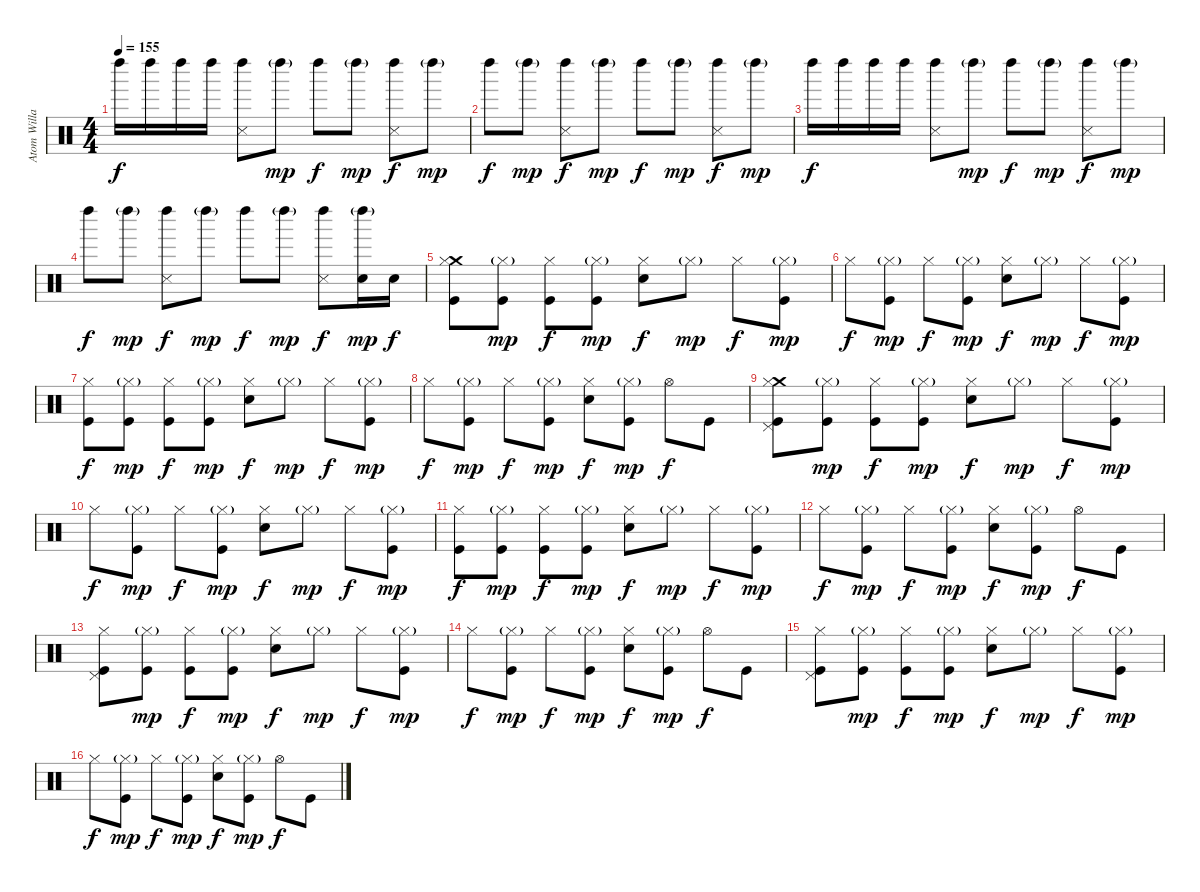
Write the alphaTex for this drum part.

\track ("Atom Willard Drums" "Atom Willa") {instrument percussion}
\staff {score}
\articulation defaults
\ts (4 4)
\tempo 155
\clef neutral
\ks c "Left Maraca (hit)".16{dy f} "Left Maraca (hit)".16 "Left Maraca (hit)".16 "Left Maraca (hit)".16
("Snare (side stick) 3" "Left Maraca (hit)").8 "Left Maraca (hit)"{g}.8{dy mp} "Left Maraca (hit)".8{dy f} "Left Maraca (hit)"{g}.8{dy mp} ("Left Maraca (hit)" "Snare (side stick) 3").8{dy f} "Left Maraca (hit)"{g}.8{dy mp} |
"Left Maraca (hit)".8{dy f} "Left Maraca (hit)"{g}.8{dy mp} ("Left Maraca (hit)" "Snare (side stick) 3").8{dy f} "Left Maraca (hit)"{g}.8{dy mp} "Left Maraca (hit)".8{dy f} "Left Maraca (hit)"{g}.8{dy mp} ("Left Maraca (hit)" "Snare (side stick) 3").8{dy f} "Left Maraca (hit)"{g}.8{dy mp} |
"Left Maraca (hit)".16{dy f} "Left Maraca (hit)".16 "Left Maraca (hit)".16 "Left Maraca (hit)".16 ("Snare (side stick) 3" "Left Maraca (hit)").8 "Left Maraca (hit)"{g}.8{dy mp} "Left Maraca (hit)".8{dy f} "Left Maraca (hit)"{g}.8{dy mp} ("Left Maraca (hit)" "Snare (side stick) 3").8{dy f} "Left Maraca (hit)"{g}.8{dy mp} |
"Left Maraca (hit)".8{dy f} "Left Maraca (hit)"{g}.8{dy mp} ("Left Maraca (hit)" "Snare (side stick) 3").8{dy f} "Left Maraca (hit)"{g}.8{dy mp} "Left Maraca (hit)".8{dy f} "Left Maraca (hit)"{g}.8{dy mp} ("Left Maraca (hit)" "Snare (side stick) 3").8{dy f} ("Left Maraca (hit)"{g} "Electric Snare (hit)").16{dy mp} "Electric Snare (hit)".16{dy f} |
("Kick (hit)" "Crash medium (hit)" "Hi-Hat (closed)").8 ("Hi-Hat (closed)"{g} "Kick (hit)").8{dy mp} ("Kick (hit)" "Hi-Hat (closed)").8{dy f} ("Kick (hit)" "Hi-Hat (closed)"{g}).8{dy mp} ("Electric Snare (hit)" "Hi-Hat (closed)").8{dy f} "Hi-Hat (closed)"{g}.8{dy mp} "Hi-Hat (closed)".8{dy f} ("Hi-Hat (closed)"{g} "Kick (hit)").8{dy mp} |
"Hi-Hat (closed)".8{dy f} ("Hi-Hat (closed)"{g} "Kick (hit)").8{dy mp} "Hi-Hat (closed)".8{dy f} ("Hi-Hat (closed)"{g} "Kick (hit)").8{dy mp} ("Electric Snare (hit)" "Hi-Hat (closed)").8{dy f} "Hi-Hat (closed)"{g}.8{dy mp} "Hi-Hat (closed)".8{dy f} ("Hi-Hat (closed)"{g} "Kick (hit)").8{dy mp} |
("Hi-Hat (closed)" "Kick (hit)").8{dy f} ("Hi-Hat (closed)"{g} "Kick (hit)").8{dy mp} ("Hi-Hat (closed)" "Kick (hit)").8{dy f} ("Hi-Hat (closed)"{g} "Kick (hit)").8{dy mp} ("Hi-Hat (closed)" "Electric Snare (hit)").8{dy f} "Hi-Hat (closed)"{g}.8{dy mp} "Hi-Hat (closed)".8{dy f} ("Hi-Hat (closed)"{g} "Kick (hit)").8{dy mp} |
"Hi-Hat (closed)".8{dy f} ("Hi-Hat (closed)"{g} "Kick (hit)").8{dy mp} "Hi-Hat (closed)".8{dy f} ("Hi-Hat (closed)"{g} "Kick (hit)").8{dy mp} ("Electric Snare (hit)" "Hi-Hat (closed)").8{dy f} ("Hi-Hat (closed)"{g} "Kick (hit)").8{dy mp} "Hi-Hat (open)".8{dy f} "Kick (hit)".8 |
("Kick (hit)" "Crash medium (hit)" "Hi-Hat (closed)" "Pedal Hi-Hat (hit)").8 ("Hi-Hat (closed)"{g} "Kick (hit)").8{dy mp} ("Kick (hit)" "Hi-Hat (closed)").8{dy f} ("Kick (hit)" "Hi-Hat (closed)"{g}).8{dy mp} ("Electric Snare (hit)" "Hi-Hat (closed)").8{dy f} "Hi-Hat (closed)"{g}.8{dy mp} "Hi-Hat (closed)".8{dy f} ("Hi-Hat (closed)"{g} "Kick (hit)").8{dy mp} |
"Hi-Hat (closed)".8{dy f} ("Hi-Hat (closed)"{g} "Kick (hit)").8{dy mp} "Hi-Hat (closed)".8{dy f} ("Hi-Hat (closed)"{g} "Kick (hit)").8{dy mp} ("Electric Snare (hit)" "Hi-Hat (closed)").8{dy f} "Hi-Hat (closed)"{g}.8{dy mp} "Hi-Hat (closed)".8{dy f} ("Hi-Hat (closed)"{g} "Kick (hit)").8{dy mp} |
("Hi-Hat (closed)" "Kick (hit)").8{dy f} ("Hi-Hat (closed)"{g} "Kick (hit)").8{dy mp} ("Hi-Hat (closed)" "Kick (hit)").8{dy f} ("Hi-Hat (closed)"{g} "Kick (hit)").8{dy mp} ("Hi-Hat (closed)" "Electric Snare (hit)").8{dy f} "Hi-Hat (closed)"{g}.8{dy mp} "Hi-Hat (closed)".8{dy f} ("Hi-Hat (closed)"{g} "Kick (hit)").8{dy mp} |
"Hi-Hat (closed)".8{dy f} ("Hi-Hat (closed)"{g} "Kick (hit)").8{dy mp} "Hi-Hat (closed)".8{dy f} ("Hi-Hat (closed)"{g} "Kick (hit)").8{dy mp} ("Electric Snare (hit)" "Hi-Hat (closed)").8{dy f} ("Hi-Hat (closed)"{g} "Kick (hit)").8{dy mp} "Hi-Hat (open)".8{dy f} "Kick (hit)".8 |
("Hi-Hat (closed)" "Kick (hit)" "Pedal Hi-Hat (hit)").8 ("Hi-Hat (closed)"{g} "Kick (hit)").8{dy mp} ("Hi-Hat (closed)" "Kick (hit)").8{dy f} ("Hi-Hat (closed)"{g} "Kick (hit)").8{dy mp} ("Hi-Hat (closed)" "Electric Snare (hit)").8{dy f} "Hi-Hat (closed)"{g}.8{dy mp} "Hi-Hat (closed)".8{dy f} ("Hi-Hat (closed)"{g} "Kick (hit)").8{dy mp} |
"Hi-Hat (closed)".8{dy f} ("Hi-Hat (closed)"{g} "Kick (hit)").8{dy mp} "Hi-Hat (closed)".8{dy f} ("Hi-Hat (closed)"{g} "Kick (hit)").8{dy mp} ("Electric Snare (hit)" "Hi-Hat (closed)").8{dy f} ("Hi-Hat (closed)"{g} "Kick (hit)").8{dy mp} "Hi-Hat (open)".8{dy f} "Kick (hit)".8 |
("Hi-Hat (closed)" "Kick (hit)" "Pedal Hi-Hat (hit)").8 ("Hi-Hat (closed)"{g} "Kick (hit)").8{dy mp} ("Hi-Hat (closed)" "Kick (hit)").8{dy f} ("Hi-Hat (closed)"{g} "Kick (hit)").8{dy mp} ("Hi-Hat (closed)" "Electric Snare (hit)").8{dy f} "Hi-Hat (closed)"{g}.8{dy mp} "Hi-Hat (closed)".8{dy f} ("Hi-Hat (closed)"{g} "Kick (hit)").8{dy mp} |
"Hi-Hat (closed)".8{dy f} ("Hi-Hat (closed)"{g} "Kick (hit)").8{dy mp} "Hi-Hat (closed)".8{dy f} ("Hi-Hat (closed)"{g} "Kick (hit)").8{dy mp} ("Electric Snare (hit)" "Hi-Hat (closed)").8{dy f} ("Hi-Hat (closed)"{g} "Kick (hit)").8{dy mp} "Hi-Hat (open)".8{dy f} "Kick (hit)".8
